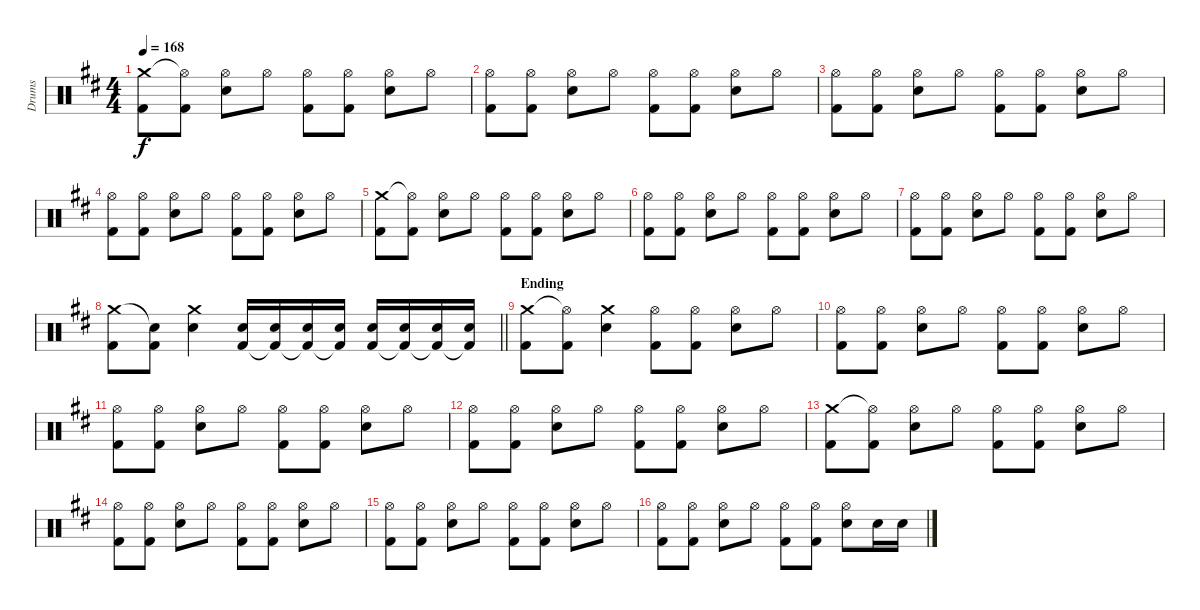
\track ("Drums" "Drums") {instrument percussion}
\staff {score}
\articulation defaults
\ts (4 4)
\tempo 168
\clef neutral
\ks d
("Crash medium (hit)" "Kick (hit) 2").8{dy f} ("Hi-Hat (open)"{t} "Kick (hit) 2").8 ("Hi-Hat (open)" "Electric Snare (hit)").8 "Hi-Hat (open)".8 ("Hi-Hat (open)" "Kick (hit) 2").8 ("Hi-Hat (open)" "Kick (hit) 2").8 ("Hi-Hat (open)" "Electric Snare (hit)").8 "Hi-Hat (open)".8 |
("Hi-Hat (open)" "Kick (hit) 2").8 ("Hi-Hat (open)" "Kick (hit) 2").8 ("Hi-Hat (open)" "Electric Snare (hit)").8 "Hi-Hat (open)".8 ("Hi-Hat (open)" "Kick (hit) 2").8 ("Hi-Hat (open)" "Kick (hit) 2").8 ("Hi-Hat (open)" "Electric Snare (hit)").8 "Hi-Hat (open)".8 |
("Hi-Hat (open)" "Kick (hit) 2").8 ("Hi-Hat (open)" "Kick (hit) 2").8 ("Hi-Hat (open)" "Electric Snare (hit)").8 "Hi-Hat (open)".8 ("Hi-Hat (open)" "Kick (hit) 2").8 ("Hi-Hat (open)" "Kick (hit) 2").8 ("Hi-Hat (open)" "Electric Snare (hit)").8 "Hi-Hat (open)".8 |
("Hi-Hat (open)" "Kick (hit) 2").8 ("Hi-Hat (open)" "Kick (hit) 2").8 ("Hi-Hat (open)" "Electric Snare (hit)").8 "Hi-Hat (open)".8 ("Hi-Hat (open)" "Kick (hit) 2").8 ("Hi-Hat (open)" "Kick (hit) 2").8 ("Hi-Hat (open)" "Electric Snare (hit)").8 "Hi-Hat (open)".8 |
("Crash medium (hit)" "Kick (hit) 2").8 ("Hi-Hat (open)"{t} "Kick (hit) 2").8 ("Hi-Hat (open)" "Electric Snare (hit)").8 "Hi-Hat (open)".8 ("Hi-Hat (open)" "Kick (hit) 2").8 ("Hi-Hat (open)" "Kick (hit) 2").8 ("Hi-Hat (open)" "Electric Snare (hit)").8 "Hi-Hat (open)".8 |
("Hi-Hat (open)" "Kick (hit) 2").8 ("Hi-Hat (open)" "Kick (hit) 2").8 ("Hi-Hat (open)" "Electric Snare (hit)").8 "Hi-Hat (open)".8 ("Hi-Hat (open)" "Kick (hit) 2").8 ("Hi-Hat (open)" "Kick (hit) 2").8 ("Hi-Hat (open)" "Electric Snare (hit)").8 "Hi-Hat (open)".8 |
("Hi-Hat (open)" "Kick (hit) 2").8 ("Hi-Hat (open)" "Kick (hit) 2").8 ("Hi-Hat (open)" "Electric Snare (hit)").8 "Hi-Hat (open)".8 ("Hi-Hat (open)" "Kick (hit) 2").8 ("Hi-Hat (open)" "Kick (hit) 2").8 ("Hi-Hat (open)" "Electric Snare (hit)").8 "Hi-Hat (open)".8 |
\barLineRight lightlight
("Crash medium (hit)" "Kick (hit) 2").8 ("Snare (hit)"{t} "Kick (hit) 2").8 ("Crash medium (hit)" "Electric Snare (hit)").4 ("Electric Snare (hit)" "Kick (hit) 2").16 ("Electric Snare (hit)" "Kick (hit) 2"{t}).16 ("Electric Snare (hit)" "Kick (hit) 2"{t}).16 ("Electric Snare (hit)" "Kick (hit) 2"{t}).16 ("Electric Snare (hit)" "Kick (hit) 2").16 ("Electric Snare (hit)" "Kick (hit) 2"{t}).16 ("Electric Snare (hit)" "Kick (hit) 2"{t}).16 ("Electric Snare (hit)" "Kick (hit) 2"{t}).16 |
\section ("" "Ending")
("Crash medium (hit)" "Kick (hit) 2").8 ("Hi-Hat (open)"{t} "Kick (hit) 2").8 ("Crash medium (hit)" "Electric Snare (hit)").4 ("Hi-Hat (open)" "Kick (hit) 2").8 ("Hi-Hat (open)" "Kick (hit) 2").8 ("Hi-Hat (open)" "Electric Snare (hit)").8 "Hi-Hat (open)".8 |
("Hi-Hat (open)" "Kick (hit) 2").8 ("Hi-Hat (open)" "Kick (hit) 2").8 ("Hi-Hat (open)" "Electric Snare (hit)").8 "Hi-Hat (open)".8 ("Hi-Hat (open)" "Kick (hit) 2").8 ("Hi-Hat (open)" "Kick (hit) 2").8 ("Hi-Hat (open)" "Electric Snare (hit)").8 "Hi-Hat (open)".8 |
("Hi-Hat (open)" "Kick (hit) 2").8 ("Hi-Hat (open)" "Kick (hit) 2").8 ("Hi-Hat (open)" "Electric Snare (hit)").8 "Hi-Hat (open)".8 ("Hi-Hat (open)" "Kick (hit) 2").8 ("Hi-Hat (open)" "Kick (hit) 2").8 ("Hi-Hat (open)" "Electric Snare (hit)").8 "Hi-Hat (open)".8 |
("Hi-Hat (open)" "Kick (hit) 2").8 ("Hi-Hat (open)" "Kick (hit) 2").8 ("Hi-Hat (open)" "Electric Snare (hit)").8 "Hi-Hat (open)".8 ("Hi-Hat (open)" "Kick (hit) 2").8 ("Hi-Hat (open)" "Kick (hit) 2").8 ("Hi-Hat (open)" "Electric Snare (hit)").8 "Hi-Hat (open)".8 |
("Crash medium (hit)" "Kick (hit) 2").8 ("Hi-Hat (open)"{t} "Kick (hit) 2").8 ("Hi-Hat (open)" "Electric Snare (hit)").8 "Hi-Hat (open)".8 ("Hi-Hat (open)" "Kick (hit) 2").8 ("Hi-Hat (open)" "Kick (hit) 2").8 ("Hi-Hat (open)" "Electric Snare (hit)").8 "Hi-Hat (open)".8 |
("Hi-Hat (open)" "Kick (hit) 2").8 ("Hi-Hat (open)" "Kick (hit) 2").8 ("Hi-Hat (open)" "Electric Snare (hit)").8 "Hi-Hat (open)".8 ("Hi-Hat (open)" "Kick (hit) 2").8 ("Hi-Hat (open)" "Kick (hit) 2").8 ("Hi-Hat (open)" "Electric Snare (hit)").8 "Hi-Hat (open)".8 |
("Hi-Hat (open)" "Kick (hit) 2").8 ("Hi-Hat (open)" "Kick (hit) 2").8 ("Hi-Hat (open)" "Electric Snare (hit)").8 "Hi-Hat (open)".8 ("Hi-Hat (open)" "Kick (hit) 2").8 ("Hi-Hat (open)" "Kick (hit) 2").8 ("Hi-Hat (open)" "Electric Snare (hit)").8 "Hi-Hat (open)".8 |
("Hi-Hat (open)" "Kick (hit) 2").8 ("Hi-Hat (open)" "Kick (hit) 2").8 ("Hi-Hat (open)" "Electric Snare (hit)").8 "Hi-Hat (open)".8 ("Hi-Hat (open)" "Kick (hit) 2").8 ("Hi-Hat (open)" "Kick (hit) 2").8 ("Hi-Hat (open)" "Electric Snare (hit)").8 "Electric Snare (hit)".16 "Electric Snare (hit)".16
